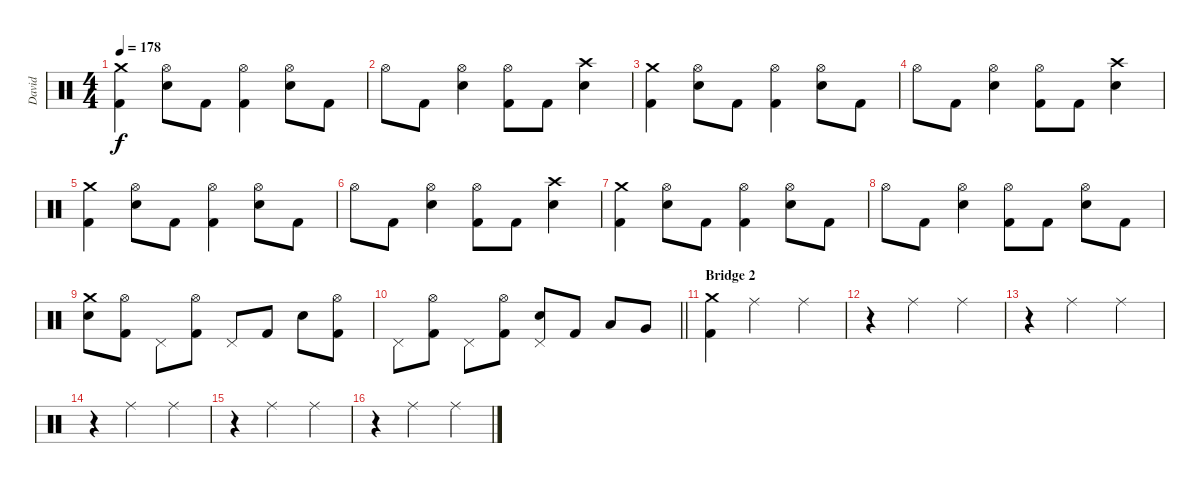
\track ("David" "David") {instrument percussion}
\staff {score}
\articulation defaults
\ts (4 4)
\tempo 178
\clef neutral
\ks c
("Crash medium (hit)" "Kick (hit) 2").4{dy f} ("Hi-Hat (open)" "Electric Snare (hit)").8 "Kick (hit) 2".8 ("Hi-Hat (open)" "Kick (hit) 2").4 ("Hi-Hat (open)" "Electric Snare (hit)").8 "Kick (hit) 2".8 |
"Hi-Hat (open)".8 "Kick (hit) 2".8 ("Hi-Hat (open)" "Electric Snare (hit)").4 ("Hi-Hat (open)" "Kick (hit) 2").8 "Kick (hit) 2".8 ("Crash high (hit)" "Electric Snare (hit)").4 |
("Crash medium (hit)" "Kick (hit) 2").4 ("Hi-Hat (open)" "Electric Snare (hit)").8 "Kick (hit) 2".8 ("Hi-Hat (open)" "Kick (hit) 2").4 ("Hi-Hat (open)" "Electric Snare (hit)").8 "Kick (hit) 2".8 |
"Hi-Hat (open)".8 "Kick (hit) 2".8 ("Hi-Hat (open)" "Electric Snare (hit)").4 ("Hi-Hat (open)" "Kick (hit) 2").8 "Kick (hit) 2".8 ("Crash high (hit)" "Electric Snare (hit)").4 |
("Crash medium (hit)" "Kick (hit) 2").4 ("Hi-Hat (open)" "Electric Snare (hit)").8 "Kick (hit) 2".8 ("Hi-Hat (open)" "Kick (hit) 2").4 ("Hi-Hat (open)" "Electric Snare (hit)").8 "Kick (hit) 2".8 |
"Hi-Hat (open)".8 "Kick (hit) 2".8 ("Hi-Hat (open)" "Electric Snare (hit)").4 ("Hi-Hat (open)" "Kick (hit) 2").8 "Kick (hit) 2".8 ("Crash high (hit)" "Electric Snare (hit)").4 |
("Crash medium (hit)" "Kick (hit) 2").4 ("Hi-Hat (open)" "Electric Snare (hit)").8 "Kick (hit) 2".8 ("Hi-Hat (open)" "Kick (hit) 2").4 ("Hi-Hat (open)" "Electric Snare (hit)").8 "Kick (hit) 2".8 |
"Hi-Hat (open)".8 "Kick (hit) 2".8 ("Hi-Hat (open)" "Electric Snare (hit)").4 ("Hi-Hat (open)" "Kick (hit) 2").8 "Kick (hit) 2".8 ("Hi-Hat (open)" "Electric Snare (hit)").8 "Kick (hit) 2".8 |
("Crash medium (hit)" "Electric Snare (hit)").8 ("Hi-Hat (open)" "Kick (hit) 2").8 "Pedal Hi-Hat (hit)".8 ("Hi-Hat (open)" "Kick (hit) 2").8 "Pedal Hi-Hat (hit)".8 "Kick (hit) 2".8 "Electric Snare (hit)".8 ("Hi-Hat (open)" "Kick (hit) 2").8 |
\barLineRight lightlight "Pedal Hi-Hat (hit)".8
("Hi-Hat (open)" "Kick (hit) 2").8 "Pedal Hi-Hat (hit)".8 ("Hi-Hat (open)" "Kick (hit) 2").8 ("Pedal Hi-Hat (hit)" "Electric Snare (hit)").8 "Kick (hit) 2".8 "Low Tom (hit)".8 "Very Low Tom (hit)".8 |
\section ("" "Bridge 2")
("Crash medium (hit)" "Kick (hit) 2").4 "Ride (middle)".2 "Ride (middle)".4 |
r.4 "Ride (middle)".2 "Ride (middle)".4 |
r.4 "Ride (middle)".2 "Ride (middle)".4 |
r.4 "Ride (middle)".2 "Ride (middle)".4 |
r.4 "Ride (middle)".2 "Ride (middle)".4 |
r.4 "Ride (middle)".2 "Ride (middle)".4
